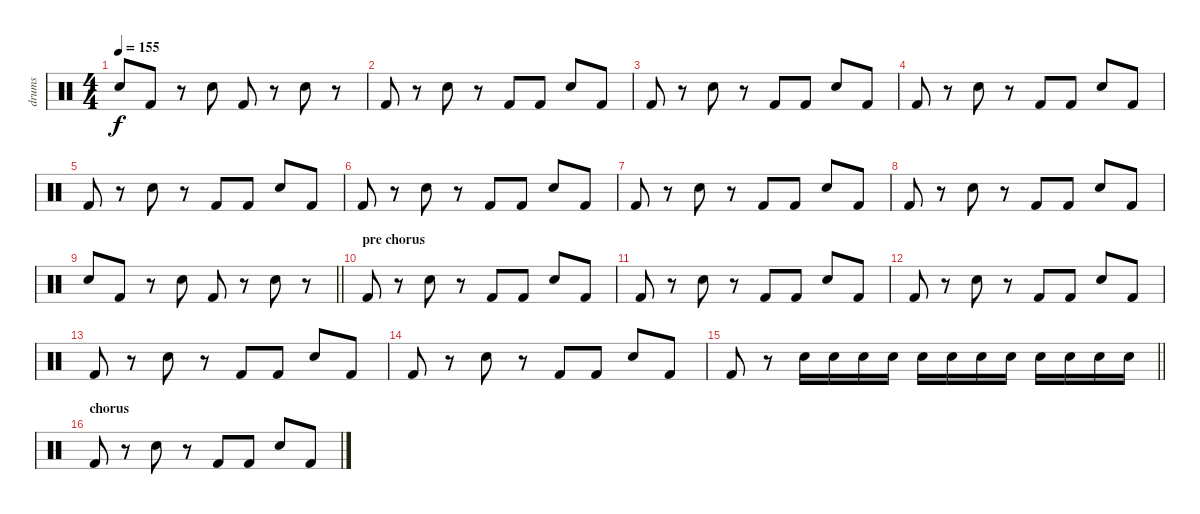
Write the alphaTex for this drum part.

\track ("drums" "drums") {instrument percussion}
\staff {score}
\articulation defaults
\ts (4 4)
\tempo 155
\clef neutral
\ks c "Snare (hit) 2".8{dy f} "Kick (hit) 2".8
r.8 "Snare (hit) 2".8 "Kick (hit) 2".8 r.8 "Snare (hit) 2".8 r.8 |
"Kick (hit) 2".8 r.8 "Snare (hit) 2".8 r.8 "Kick (hit) 2".8 "Kick (hit) 2".8 "Snare (hit) 2".8 "Kick (hit) 2".8 |
"Kick (hit) 2".8 r.8 "Snare (hit) 2".8 r.8 "Kick (hit) 2".8 "Kick (hit) 2".8 "Snare (hit) 2".8 "Kick (hit) 2".8 |
"Kick (hit) 2".8 r.8 "Snare (hit) 2".8 r.8 "Kick (hit) 2".8 "Kick (hit) 2".8 "Snare (hit) 2".8 "Kick (hit) 2".8 |
"Kick (hit) 2".8 r.8 "Snare (hit) 2".8 r.8 "Kick (hit) 2".8 "Kick (hit) 2".8 "Snare (hit) 2".8 "Kick (hit) 2".8 |
"Kick (hit) 2".8 r.8 "Snare (hit) 2".8 r.8 "Kick (hit) 2".8 "Kick (hit) 2".8 "Snare (hit) 2".8 "Kick (hit) 2".8 |
"Kick (hit) 2".8 r.8 "Snare (hit) 2".8 r.8 "Kick (hit) 2".8 "Kick (hit) 2".8 "Snare (hit) 2".8 "Kick (hit) 2".8 |
"Kick (hit) 2".8 r.8 "Snare (hit) 2".8 r.8 "Kick (hit) 2".8 "Kick (hit) 2".8 "Snare (hit) 2".8 "Kick (hit) 2".8 |
\barLineRight lightlight "Snare (hit) 2".8 "Kick (hit) 2".8
r.8 "Snare (hit) 2".8 "Kick (hit) 2".8 r.8 "Snare (hit) 2".8 r.8 |
\section ("" "pre chorus")
"Kick (hit) 2".8 r.8 "Snare (hit) 2".8 r.8 "Kick (hit) 2".8 "Kick (hit) 2".8 "Snare (hit) 2".8 "Kick (hit) 2".8 |
"Kick (hit) 2".8 r.8 "Snare (hit) 2".8 r.8 "Kick (hit) 2".8 "Kick (hit) 2".8 "Snare (hit) 2".8 "Kick (hit) 2".8 |
"Kick (hit) 2".8 r.8 "Snare (hit) 2".8 r.8 "Kick (hit) 2".8 "Kick (hit) 2".8 "Snare (hit) 2".8 "Kick (hit) 2".8 |
"Kick (hit) 2".8 r.8 "Snare (hit) 2".8 r.8 "Kick (hit) 2".8 "Kick (hit) 2".8 "Snare (hit) 2".8 "Kick (hit) 2".8 |
"Kick (hit) 2".8 r.8 "Snare (hit) 2".8 r.8 "Kick (hit) 2".8 "Kick (hit) 2".8 "Snare (hit) 2".8 "Kick (hit) 2".8 |
\barLineRight lightlight "Kick (hit) 2".8
r.8 "Snare (hit) 2".16 "Snare (hit) 2".16 "Snare (hit) 2".16 "Snare (hit) 2".16 "Snare (hit) 2".16 "Snare (hit) 2".16 "Snare (hit) 2".16 "Snare (hit) 2".16 "Snare (hit) 2".16 "Snare (hit) 2".16 "Snare (hit) 2".16 "Snare (hit) 2".16 |
\section ("" "chorus")
"Kick (hit) 2".8 r.8 "Snare (hit) 2".8 r.8 "Kick (hit) 2".8 "Kick (hit) 2".8 "Snare (hit) 2".8 "Kick (hit) 2".8
